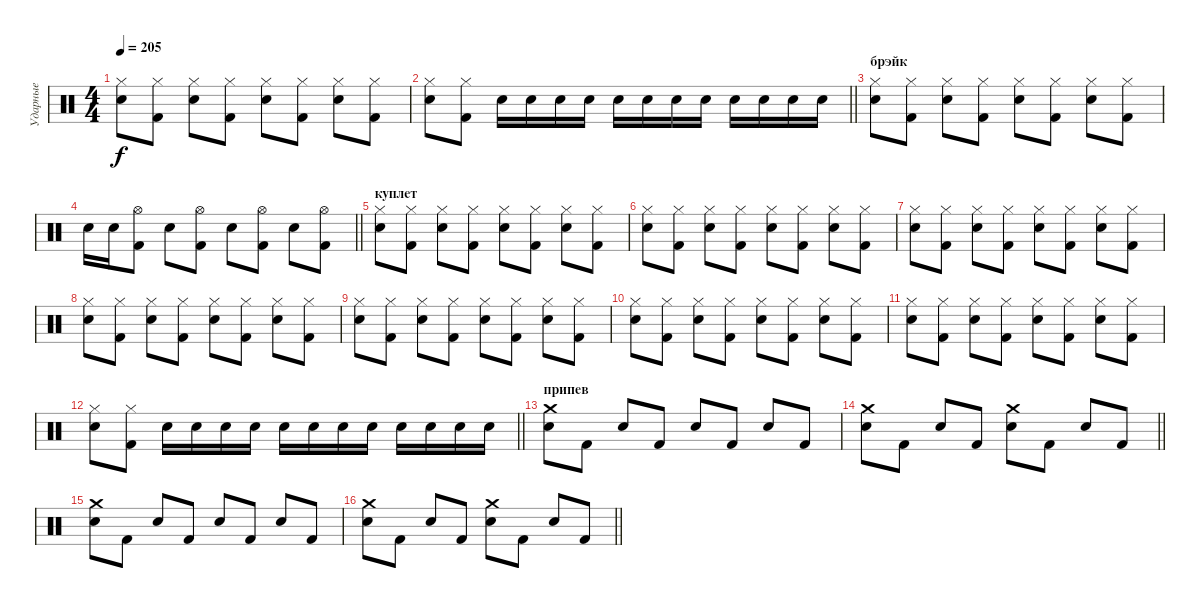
\track ("Ударные" "Ударные") {instrument percussion}
\staff {score}
\articulation defaults
\ts (4 4)
\tempo 205
\clef neutral
\ks c
("Electric Snare (hit)" "Hi-Hat (closed)").8{dy f} ("Kick (hit) 2" "Hi-Hat (closed)").8 ("Electric Snare (hit)" "Hi-Hat (closed)").8 ("Kick (hit) 2" "Hi-Hat (closed)").8 ("Electric Snare (hit)" "Hi-Hat (closed)").8 ("Kick (hit) 2" "Hi-Hat (closed)").8 ("Electric Snare (hit)" "Hi-Hat (closed)").8 ("Kick (hit) 2" "Hi-Hat (closed)").8 |
\barLineRight lightlight
("Electric Snare (hit)" "Hi-Hat (closed)").8 ("Kick (hit) 2" "Hi-Hat (closed)").8 "Electric Snare (hit)".16 "Snare (hit) 2".16 "Electric Snare (hit)".16 "Snare (hit) 2".16 "Electric Snare (hit)".16 "Snare (hit) 2".16 "Electric Snare (hit)".16 "Snare (hit) 2".16 "Snare (hit)".16 "Snare (hit) 2".16 "Electric Snare (hit)".16 "Snare (hit) 2".16 |
\section ("" "брэйк")
("Electric Snare (hit)" "Hi-Hat (closed)").8 ("Kick (hit) 2" "Hi-Hat (closed)").8 ("Electric Snare (hit)" "Hi-Hat (closed)").8 ("Kick (hit) 2" "Hi-Hat (closed)").8 ("Electric Snare (hit)" "Hi-Hat (closed)").8 ("Kick (hit) 2" "Hi-Hat (closed)").8 ("Electric Snare (hit)" "Hi-Hat (closed)").8 ("Kick (hit) 2" "Hi-Hat (closed)").8 |
\barLineRight lightlight "Electric Snare (hit)".16 "Snare (hit) 2".16
("Kick (hit) 2" "Hi-Hat (open)").8 "Electric Snare (hit)".8 ("Kick (hit) 2" "Hi-Hat (open)").8 "Electric Snare (hit)".8 ("Kick (hit) 2" "Hi-Hat (open)").8 "Electric Snare (hit)".8 ("Kick (hit) 2" "Hi-Hat (open)").8 |
\section ("" "куплет")
("Electric Snare (hit)" "Hi-Hat (closed)").8 ("Kick (hit) 2" "Hi-Hat (closed)").8 ("Electric Snare (hit)" "Hi-Hat (closed)").8 ("Kick (hit) 2" "Hi-Hat (closed)").8 ("Electric Snare (hit)" "Hi-Hat (closed)").8 ("Kick (hit) 2" "Hi-Hat (closed)").8 ("Electric Snare (hit)" "Hi-Hat (closed)").8 ("Kick (hit) 2" "Hi-Hat (closed)").8 |
("Electric Snare (hit)" "Hi-Hat (closed)").8 ("Kick (hit) 2" "Hi-Hat (closed)").8 ("Electric Snare (hit)" "Hi-Hat (closed)").8 ("Kick (hit) 2" "Hi-Hat (closed)").8 ("Electric Snare (hit)" "Hi-Hat (closed)").8 ("Kick (hit) 2" "Hi-Hat (closed)").8 ("Electric Snare (hit)" "Hi-Hat (closed)").8 ("Kick (hit) 2" "Hi-Hat (closed)").8 |
("Electric Snare (hit)" "Hi-Hat (closed)").8 ("Kick (hit) 2" "Hi-Hat (closed)").8 ("Electric Snare (hit)" "Hi-Hat (closed)").8 ("Kick (hit) 2" "Hi-Hat (closed)").8 ("Electric Snare (hit)" "Hi-Hat (closed)").8 ("Kick (hit) 2" "Hi-Hat (closed)").8 ("Electric Snare (hit)" "Hi-Hat (closed)").8 ("Kick (hit) 2" "Hi-Hat (closed)").8 |
("Electric Snare (hit)" "Hi-Hat (closed)").8 ("Kick (hit) 2" "Hi-Hat (closed)").8 ("Electric Snare (hit)" "Hi-Hat (closed)").8 ("Kick (hit) 2" "Hi-Hat (closed)").8 ("Electric Snare (hit)" "Hi-Hat (closed)").8 ("Kick (hit) 2" "Hi-Hat (closed)").8 ("Electric Snare (hit)" "Hi-Hat (closed)").8 ("Kick (hit) 2" "Hi-Hat (closed)").8 |
("Electric Snare (hit)" "Hi-Hat (closed)").8 ("Kick (hit) 2" "Hi-Hat (closed)").8 ("Electric Snare (hit)" "Hi-Hat (closed)").8 ("Kick (hit) 2" "Hi-Hat (closed)").8 ("Electric Snare (hit)" "Hi-Hat (closed)").8 ("Kick (hit) 2" "Hi-Hat (closed)").8 ("Electric Snare (hit)" "Hi-Hat (closed)").8 ("Kick (hit) 2" "Hi-Hat (closed)").8 |
("Electric Snare (hit)" "Hi-Hat (closed)").8 ("Kick (hit) 2" "Hi-Hat (closed)").8 ("Electric Snare (hit)" "Hi-Hat (closed)").8 ("Kick (hit) 2" "Hi-Hat (closed)").8 ("Electric Snare (hit)" "Hi-Hat (closed)").8 ("Kick (hit) 2" "Hi-Hat (closed)").8 ("Electric Snare (hit)" "Hi-Hat (closed)").8 ("Kick (hit) 2" "Hi-Hat (closed)").8 |
("Electric Snare (hit)" "Hi-Hat (closed)").8 ("Kick (hit) 2" "Hi-Hat (closed)").8 ("Electric Snare (hit)" "Hi-Hat (closed)").8 ("Kick (hit) 2" "Hi-Hat (closed)").8 ("Electric Snare (hit)" "Hi-Hat (closed)").8 ("Kick (hit) 2" "Hi-Hat (closed)").8 ("Electric Snare (hit)" "Hi-Hat (closed)").8 ("Kick (hit) 2" "Hi-Hat (closed)").8 |
\barLineRight lightlight
("Electric Snare (hit)" "Hi-Hat (closed)").8 ("Kick (hit) 2" "Hi-Hat (closed)").8 "Electric Snare (hit)".16 "Snare (hit) 2".16 "Electric Snare (hit)".16 "Snare (hit) 2".16 "Electric Snare (hit)".16 "Snare (hit) 2".16 "Electric Snare (hit)".16 "Snare (hit) 2".16 "Electric Snare (hit)".16 "Snare (hit) 2".16 "Electric Snare (hit)".16 "Snare (hit) 2".16 |
\section ("" "припев")
("Electric Snare (hit)" "Crash medium (hit)").8 "Kick (hit) 2".8 "Electric Snare (hit)".8 "Kick (hit) 2".8 "Electric Snare (hit)".8 "Kick (hit) 2".8 "Electric Snare (hit)".8 "Kick (hit) 2".8 |
\barLineRight lightlight
("Electric Snare (hit)" "Crash medium (hit)").8 "Kick (hit) 2".8 "Electric Snare (hit)".8 "Kick (hit) 2".8 ("Electric Snare (hit)" "Crash medium (hit)").8 "Kick (hit) 2".8 "Electric Snare (hit)".8 "Kick (hit) 2".8 |
("Electric Snare (hit)" "Crash medium (hit)").8 "Kick (hit) 2".8 "Electric Snare (hit)".8 "Kick (hit) 2".8 "Electric Snare (hit)".8 "Kick (hit) 2".8 "Electric Snare (hit)".8 "Kick (hit) 2".8 |
\barLineRight lightlight
("Electric Snare (hit)" "Crash medium (hit)").8 "Kick (hit) 2".8 "Electric Snare (hit)".8 "Kick (hit) 2".8 ("Electric Snare (hit)" "Crash medium (hit)").8 "Kick (hit) 2".8 "Electric Snare (hit)".8 "Kick (hit) 2".8
